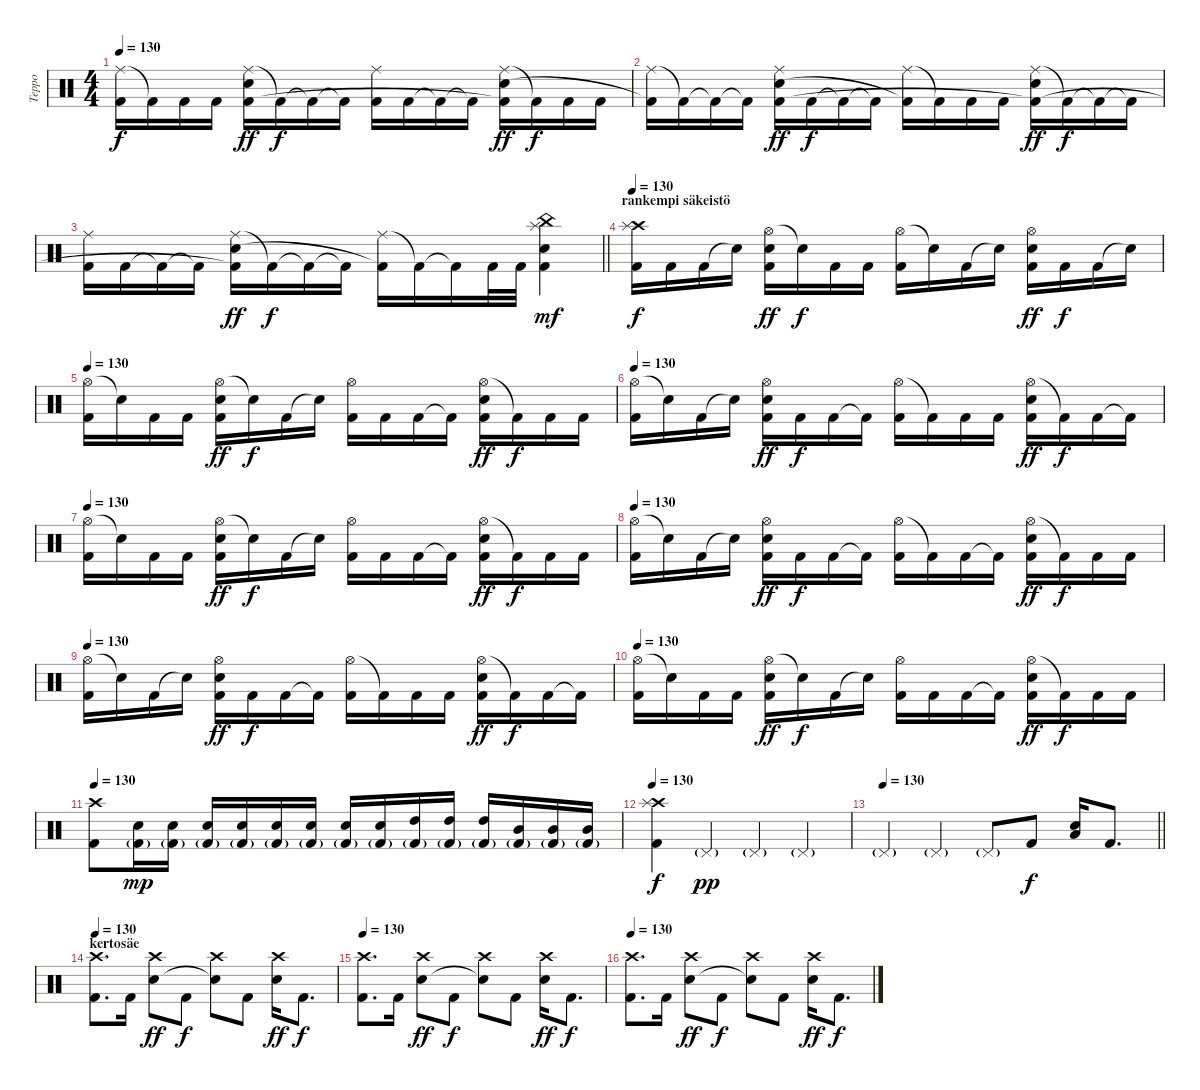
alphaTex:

\track ("Teppo" "Teppo") {instrument percussion}
\staff {score}
\articulation defaults
\ts (4 4)
\tempo 130
\clef neutral
\ks c
("Ride (middle)" "Kick (hit) 2"{t}).16{dy f} "Kick (hit) 2"{t}.16 "Kick (hit) 2".16 "Kick (hit) 2".16 ("Ride (middle)" "Electric Snare (hit)" "Kick (hit) 2"{t}).16{dy ff} "Kick (hit) 2"{t}.16{dy f} "Kick (hit) 2"{t}.16 "Kick (hit) 2"{t}.16 ("Ride (middle)" "Kick (hit) 2").16 "Kick (hit) 2".16 "Kick (hit) 2"{t}.16 "Kick (hit) 2"{t}.16 ("Ride (middle)" "Electric Snare (hit)" "Kick (hit) 2"{t}).16{dy ff} "Kick (hit) 2"{t}.16{dy f} "Kick (hit) 2".16 "Kick (hit) 2".16 |
("Ride (middle)" "Kick (hit) 2"{t}).16 "Kick (hit) 2"{t}.16 "Kick (hit) 2"{t}.16 "Kick (hit) 2"{t}.16 ("Ride (middle)" "Electric Snare (hit)" "Kick (hit) 2").16{dy ff} "Kick (hit) 2".16{dy f} "Kick (hit) 2"{t}.16 "Kick (hit) 2"{t}.16 ("Ride (middle)" "Kick (hit) 2"{t}).16 "Kick (hit) 2"{t}.16 "Kick (hit) 2".16 "Kick (hit) 2".16 ("Ride (middle)" "Electric Snare (hit)" "Kick (hit) 2"{t}).16{dy ff} "Kick (hit) 2"{t}.16{dy f} "Kick (hit) 2"{t}.16 "Kick (hit) 2"{t}.16 |
\barLineRight lightlight
("Ride (middle)" "Kick (hit) 2").16 "Kick (hit) 2".16 "Kick (hit) 2"{t}.16 "Kick (hit) 2"{t}.16 ("Ride (middle)" "Electric Snare (hit)" "Kick (hit) 2"{t}).16{dy ff} "Kick (hit) 2"{t}.16{dy f} "Kick (hit) 2"{t}.16 "Kick (hit) 2"{t}.16 ("Ride (middle)" "Kick (hit) 2"{t}).16 "Kick (hit) 2"{t}.16 "Kick (hit) 2"{t}.16 "Kick (hit) 2".32 "Kick (hit) 2".32 ("China (hit)" "Splash (hit)" "Electric Snare (hit)" "Kick (hit) 2").4{dy mf} |
\section ("" "rankempi säkeistö")
\tempo 130
("Crash high (hit)" "Splash (hit)" "Kick (hit) 2").16{dy f} "Kick (hit) 2".16 "Kick (hit) 2".16 "Snare (hit)"{t}.16 ("Hi-Hat (open)" "Electric Snare (hit)" "Kick (hit) 2").16{dy ff} "Snare (hit)"{t}.16{dy f} "Kick (hit) 2".16 "Kick (hit) 2".16 ("Hi-Hat (open)" "Kick (hit) 2").16 "Snare (hit)"{t}.16 "Kick (hit) 2".16 "Snare (hit)"{t}.16 ("Hi-Hat (open)" "Electric Snare (hit)" "Kick (hit) 2").16{dy ff} "Kick (hit) 2".16{dy f} "Kick (hit) 2".16 "Snare (hit)"{t}.16 |
\tempo 130
("Hi-Hat (open)" "Kick (hit) 2").16 "Snare (hit)"{t}.16 "Kick (hit) 2".16 "Kick (hit) 2".16 ("Hi-Hat (open)" "Electric Snare (hit)" "Kick (hit) 2").16{dy ff} "Snare (hit)"{t}.16{dy f} "Kick (hit) 2".16 "Snare (hit)"{t}.16 ("Hi-Hat (open)" "Kick (hit) 2").16 "Kick (hit) 2".16 "Kick (hit) 2".16 "Kick (hit) 2"{t}.16 ("Hi-Hat (open)" "Electric Snare (hit)" "Kick (hit) 2").16{dy ff} "Kick (hit) 2"{t}.16{dy f} "Kick (hit) 2".16 "Kick (hit) 2".16 |
\tempo 130
("Hi-Hat (open)" "Kick (hit) 2").16 "Snare (hit)"{t}.16 "Kick (hit) 2".16 "Snare (hit)"{t}.16 ("Hi-Hat (open)" "Electric Snare (hit)" "Kick (hit) 2").16{dy ff} "Kick (hit) 2".16{dy f} "Kick (hit) 2".16 "Kick (hit) 2"{t}.16 ("Hi-Hat (open)" "Kick (hit) 2").16 "Kick (hit) 2"{t}.16 "Kick (hit) 2".16 "Kick (hit) 2".16 ("Hi-Hat (open)" "Electric Snare (hit)" "Kick (hit) 2").16{dy ff} "Kick (hit) 2"{t}.16{dy f} "Kick (hit) 2".16 "Kick (hit) 2"{t}.16 |
\tempo 130
("Hi-Hat (open)" "Kick (hit) 2").16 "Snare (hit)"{t}.16 "Kick (hit) 2".16 "Kick (hit) 2".16 ("Hi-Hat (open)" "Electric Snare (hit)" "Kick (hit) 2").16{dy ff} "Snare (hit)"{t}.16{dy f} "Kick (hit) 2".16 "Snare (hit)"{t}.16 ("Hi-Hat (open)" "Kick (hit) 2").16 "Kick (hit) 2".16 "Kick (hit) 2".16 "Kick (hit) 2"{t}.16 ("Hi-Hat (open)" "Electric Snare (hit)" "Kick (hit) 2").16{dy ff} "Kick (hit) 2"{t}.16{dy f} "Kick (hit) 2".16 "Kick (hit) 2".16 |
\tempo 130
("Hi-Hat (open)" "Kick (hit) 2").16 "Snare (hit)"{t}.16 "Kick (hit) 2".16 "Snare (hit)"{t}.16 ("Hi-Hat (open)" "Electric Snare (hit)" "Kick (hit) 2").16{dy ff} "Kick (hit) 2".16{dy f} "Kick (hit) 2".16 "Kick (hit) 2"{t}.16 ("Hi-Hat (open)" "Kick (hit) 2").16 "Kick (hit) 2"{t}.16 "Kick (hit) 2".16 "Kick (hit) 2"{t}.16 ("Hi-Hat (open)" "Electric Snare (hit)" "Kick (hit) 2").16{dy ff} "Kick (hit) 2"{t}.16{dy f} "Kick (hit) 2".16 "Kick (hit) 2".16 |
\tempo 130
("Hi-Hat (open)" "Kick (hit) 2").16 "Snare (hit)"{t}.16 "Kick (hit) 2".16 "Snare (hit)"{t}.16 ("Hi-Hat (open)" "Electric Snare (hit)" "Kick (hit) 2").16{dy ff} "Kick (hit) 2".16{dy f} "Kick (hit) 2".16 "Kick (hit) 2"{t}.16 ("Hi-Hat (open)" "Kick (hit) 2").16 "Kick (hit) 2"{t}.16 "Kick (hit) 2".16 "Kick (hit) 2".16 ("Hi-Hat (open)" "Electric Snare (hit)" "Kick (hit) 2").16{dy ff} "Kick (hit) 2"{t}.16{dy f} "Kick (hit) 2".16 "Kick (hit) 2"{t}.16 |
\tempo 130
("Hi-Hat (open)" "Kick (hit) 2").16 "Snare (hit)"{t}.16 "Kick (hit) 2".16 "Kick (hit) 2".16 ("Hi-Hat (open)" "Electric Snare (hit)" "Kick (hit) 2").16{dy ff} "Snare (hit)"{t}.16{dy f} "Kick (hit) 2".16 "Snare (hit)"{t}.16 ("Hi-Hat (open)" "Kick (hit) 2").16 "Kick (hit) 2".16 "Kick (hit) 2".16 "Kick (hit) 2"{t}.16 ("Hi-Hat (open)" "Electric Snare (hit)" "Kick (hit) 2").16{dy ff} "Kick (hit) 2"{t}.16{dy f} "Kick (hit) 2".16 "Kick (hit) 2".16 |
\tempo 130
("Crash high (hit)" "Kick (hit) 2").8 ("Electric Snare (hit)" "Kick (hit) 2"{g}).16{dy mp} ("Electric Snare (hit)" "Kick (hit) 2"{g}).16 ("Electric Snare (hit)" "Kick (hit) 2"{g}).16 ("Electric Snare (hit)" "Kick (hit) 2"{g}).16 ("Electric Snare (hit)" "Kick (hit) 2"{g}).16 ("Electric Snare (hit)" "Kick (hit) 2"{g}).16 ("Electric Snare (hit)" "Kick (hit) 2"{g}).16 ("Electric Snare (hit)" "Kick (hit) 2"{g}).16 ("High Tom (hit)" "Kick (hit) 2"{g}).16 ("High Tom (hit)" "Kick (hit) 2"{g}).16 ("High Tom (hit)" "Kick (hit) 2"{g}).16 ("Mid Tom (hit)" "Kick (hit) 2"{g}).16 ("Mid Tom (hit)" "Kick (hit) 2"{g}).16 ("Mid Tom (hit)" "Kick (hit) 2"{g}).16 |
\tempo 130
("Crash high (hit)" "Splash (hit)" "Kick (hit) 2").4{dy f} "Pedal Hi-Hat (hit)"{g}.4{dy pp} "Pedal Hi-Hat (hit)"{g}.4 "Pedal Hi-Hat (hit)"{g}.4 |
\tempo 130
\barLineRight lightlight "Pedal Hi-Hat (hit)"{g}.4 "Pedal Hi-Hat (hit)"{g}.4 "Pedal Hi-Hat (hit)"{g}.8 "Kick (hit) 2".8{dy f}
("Low Tom (hit)" "Electric Snare (hit)").16 "Kick (hit) 2".8{d} |
\section ("" "kertosäe")
\tempo 130
("Crash high (hit)" "Kick (hit) 2").8{d} "Kick (hit) 2".16 ("Crash high (hit)" "Electric Snare (hit)").8{dy ff} "Kick (hit) 2".8{dy f} ("Crash high (hit)" "Snare (hit)"{t}).8 "Kick (hit) 2".8 ("Crash high (hit)" "Electric Snare (hit)").16{dy ff} "Kick (hit) 2".8{d dy f} |
\tempo 130
("Crash high (hit)" "Kick (hit) 2").8{d} "Kick (hit) 2".16 ("Crash high (hit)" "Electric Snare (hit)").8{dy ff} "Kick (hit) 2".8{dy f} ("Crash high (hit)" "Snare (hit)"{t}).8 "Kick (hit) 2".8 ("Crash high (hit)" "Electric Snare (hit)").16{dy ff} "Kick (hit) 2".8{d dy f} |
\tempo 130
("Crash high (hit)" "Kick (hit) 2").8{d} "Kick (hit) 2".16 ("Crash high (hit)" "Electric Snare (hit)").8{dy ff} "Kick (hit) 2".8{dy f} ("Crash high (hit)" "Snare (hit)"{t}).8 "Kick (hit) 2".8 ("Crash high (hit)" "Electric Snare (hit)").16{dy ff} "Kick (hit) 2".8{d dy f}
